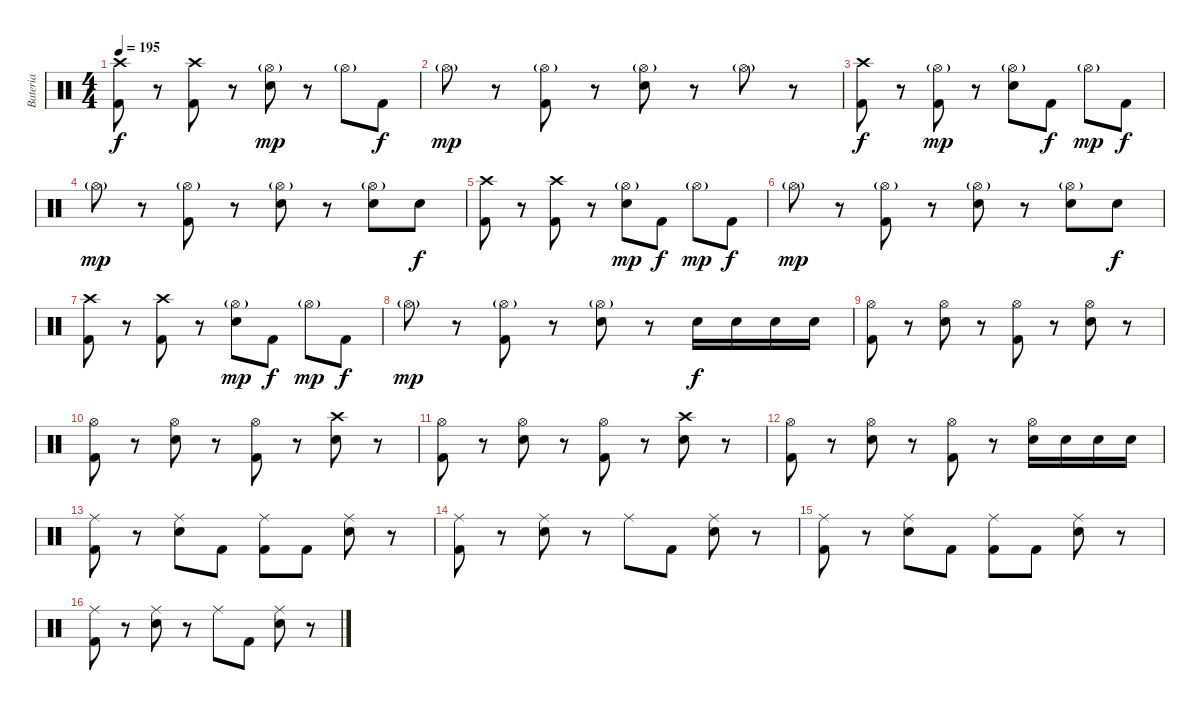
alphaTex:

\track ("Bateria" "Bateria") {instrument percussion}
\staff {score}
\articulation defaults
\ts (4 4)
\tempo 195
\clef neutral
\ks c
("Crash high (hit)" "Kick (hit) 2").8{dy f} r.8 ("Crash high (hit)" "Kick (hit) 2").8 r.8 ("Hi-Hat (open)"{g} "Snare (hit) 2").8{dy mp} r.8 "Hi-Hat (open)"{g}.8 "Kick (hit) 2".8{dy f} |
"Hi-Hat (open)"{g}.8{dy mp} r.8 ("Hi-Hat (open)"{g} "Kick (hit) 2").8 r.8 ("Hi-Hat (open)"{g} "Snare (hit) 2").8 r.8 "Hi-Hat (open)"{g}.8 r.8 |
("Crash high (hit)" "Kick (hit) 2").8{dy f} r.8 ("Hi-Hat (open)"{g} "Kick (hit) 2").8{dy mp} r.8 ("Hi-Hat (open)"{g} "Snare (hit) 2").8 "Kick (hit) 2".8{dy f} "Hi-Hat (open)"{g}.8{dy mp} "Kick (hit) 2".8{dy f} |
"Hi-Hat (open)"{g}.8{dy mp} r.8 ("Hi-Hat (open)"{g} "Kick (hit) 2").8 r.8 ("Hi-Hat (open)"{g} "Snare (hit) 2").8 r.8 ("Hi-Hat (open)"{g} "Snare (hit) 2").8 "Snare (hit) 2".8{dy f} |
("Crash high (hit)" "Kick (hit) 2").8 r.8 ("Crash high (hit)" "Kick (hit) 2").8 r.8 ("Hi-Hat (open)"{g} "Snare (hit) 2").8{dy mp} "Kick (hit) 2".8{dy f} "Hi-Hat (open)"{g}.8{dy mp} "Kick (hit) 2".8{dy f} |
"Hi-Hat (open)"{g}.8{dy mp} r.8 ("Hi-Hat (open)"{g} "Kick (hit) 2").8 r.8 ("Hi-Hat (open)"{g} "Snare (hit) 2").8 r.8 ("Hi-Hat (open)"{g} "Snare (hit) 2").8 "Snare (hit) 2".8{dy f} |
("Crash high (hit)" "Kick (hit) 2").8 r.8 ("Crash high (hit)" "Kick (hit) 2").8 r.8 ("Hi-Hat (open)"{g} "Snare (hit) 2").8{dy mp} "Kick (hit) 2".8{dy f} "Hi-Hat (open)"{g}.8{dy mp} "Kick (hit) 2".8{dy f} |
"Hi-Hat (open)"{g}.8{dy mp} r.8 ("Hi-Hat (open)"{g} "Kick (hit) 2").8 r.8 ("Hi-Hat (open)"{g} "Snare (hit) 2").8 r.8 "Snare (hit) 2".16{dy f} "Snare (hit) 2".16 "Snare (hit) 2".16 "Snare (hit) 2".16 |
("Hi-Hat (open)" "Kick (hit) 2").8 r.8 ("Hi-Hat (open)" "Snare (hit) 2").8 r.8 ("Hi-Hat (open)" "Kick (hit) 2").8 r.8 ("Hi-Hat (open)" "Snare (hit) 2").8 r.8 |
("Hi-Hat (open)" "Kick (hit) 2").8 r.8 ("Hi-Hat (open)" "Snare (hit) 2").8 r.8 ("Hi-Hat (open)" "Kick (hit) 2").8 r.8 ("Crash high (hit)" "Snare (hit) 2").8 r.8 |
("Hi-Hat (open)" "Kick (hit) 2").8 r.8 ("Hi-Hat (open)" "Snare (hit) 2").8 r.8 ("Hi-Hat (open)" "Kick (hit) 2").8 r.8 ("Crash high (hit)" "Snare (hit) 2").8 r.8 |
("Hi-Hat (open)" "Kick (hit) 2").8 r.8 ("Hi-Hat (open)" "Snare (hit) 2").8 r.8 ("Hi-Hat (open)" "Kick (hit) 2").8 r.8 ("Hi-Hat (open)" "Snare (hit) 2").16 "Snare (hit) 2".16 "Snare (hit) 2".16 "Snare (hit) 2".16 |
("Ride (middle)" "Kick (hit) 2").8 r.8 ("Ride (middle)" "Snare (hit) 2").8 "Kick (hit) 2".8 ("Ride (middle)" "Kick (hit) 2").8 "Kick (hit) 2".8 ("Ride (middle)" "Snare (hit) 2").8 r.8 |
("Ride (middle)" "Kick (hit) 2").8 r.8 ("Ride (middle)" "Snare (hit) 2").8 r.8 "Ride (middle)".8 "Kick (hit) 2".8 ("Ride (middle)" "Snare (hit) 2").8 r.8 |
("Ride (middle)" "Kick (hit) 2").8 r.8 ("Ride (middle)" "Snare (hit) 2").8 "Kick (hit) 2".8 ("Ride (middle)" "Kick (hit) 2").8 "Kick (hit) 2".8 ("Ride (middle)" "Snare (hit) 2").8 r.8 |
("Ride (middle)" "Kick (hit) 2").8 r.8 ("Ride (middle)" "Snare (hit) 2").8 r.8 "Ride (middle)".8 "Kick (hit) 2".8 ("Ride (middle)" "Snare (hit) 2").8 r.8
